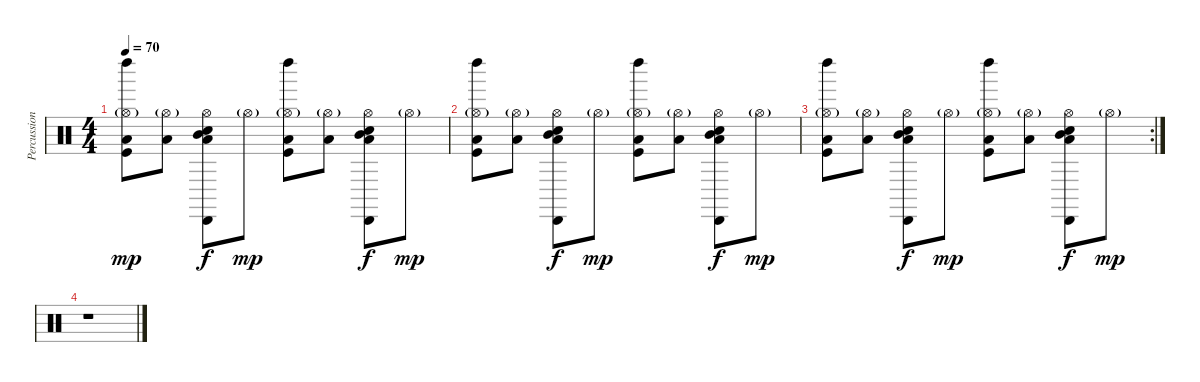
\track ("Percussions" "Percussion") {instrument percussion}
\staff {score}
\articulation defaults
\ts (4 4)
\tempo 70
\clef neutral
\ks c
("Left Maraca (hit)" "Low Tom (hit)" "Kick (hit)" "Hi-Hat (open)"{g}).8{dy mp} ("Low Tom (hit)" "Hi-Hat (open)"{g}).8 ("Cabasa (hit)" "Mid Tom (hit)" "Snare (hit) 2" "Low Tom (hit)" "Hi-Hat (open)").8{dy f} "Hi-Hat (open)"{g}.8{dy mp} ("Left Maraca (hit)" "Low Tom (hit)" "Kick (hit)" "Hi-Hat (open)"{g}).8 ("Low Tom (hit)" "Hi-Hat (open)"{g}).8 ("Mid Tom (hit)" "Snare (hit) 2" "Cabasa (hit)" "Low Tom (hit)" "Hi-Hat (open)").8{dy f} "Hi-Hat (open)"{g}.8{dy mp} |
("Left Maraca (hit)" "Low Tom (hit)" "Kick (hit)" "Hi-Hat (open)"{g}).8 ("Low Tom (hit)" "Hi-Hat (open)"{g}).8 ("Cabasa (hit)" "Mid Tom (hit)" "Snare (hit) 2" "Low Tom (hit)" "Hi-Hat (open)").8{dy f} "Hi-Hat (open)"{g}.8{dy mp} ("Left Maraca (hit)" "Low Tom (hit)" "Kick (hit)" "Hi-Hat (open)"{g}).8 ("Low Tom (hit)" "Hi-Hat (open)"{g}).8 ("Mid Tom (hit)" "Snare (hit) 2" "Cabasa (hit)" "Low Tom (hit)" "Hi-Hat (open)").8{dy f} "Hi-Hat (open)"{g}.8{dy mp} |
\rc 2
("Left Maraca (hit)" "Low Tom (hit)" "Kick (hit)" "Hi-Hat (open)"{g}).8 ("Low Tom (hit)" "Hi-Hat (open)"{g}).8 ("Cabasa (hit)" "Mid Tom (hit)" "Snare (hit) 2" "Low Tom (hit)" "Hi-Hat (open)").8{dy f} "Hi-Hat (open)"{g}.8{dy mp} ("Left Maraca (hit)" "Low Tom (hit)" "Kick (hit)" "Hi-Hat (open)"{g}).8 ("Low Tom (hit)" "Hi-Hat (open)"{g}).8 ("Mid Tom (hit)" "Snare (hit) 2" "Cabasa (hit)" "Low Tom (hit)" "Hi-Hat (open)").8{dy f} "Hi-Hat (open)"{g}.8{dy mp} |
r.1
